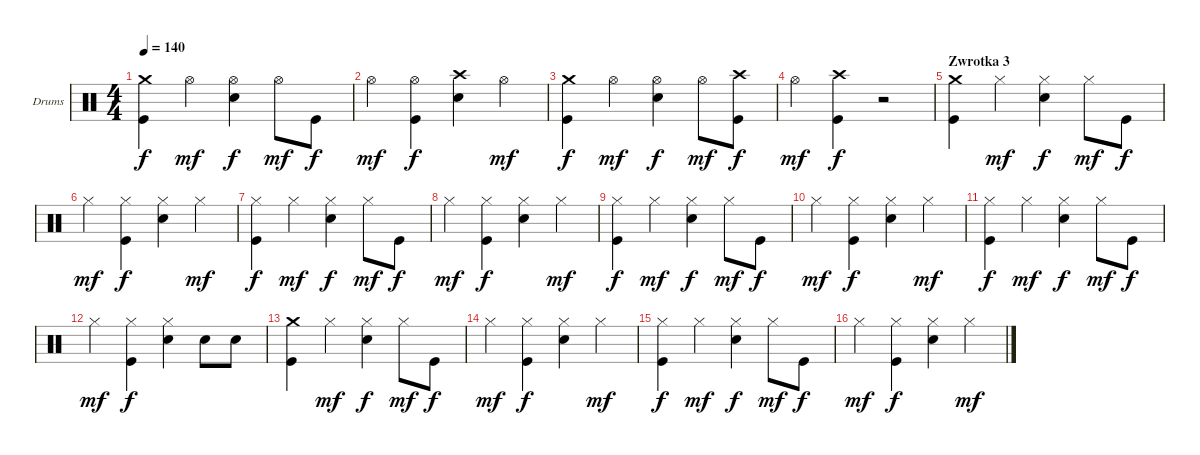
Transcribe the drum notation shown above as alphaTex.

\bracketExtendMode groupsimilarinstruments
\firstSystemTrackNameOrientation horizontal
\otherSystemsTrackNameOrientation horizontal
\track ("Drumkit" "Drums") {instrument percussion}
\staff {score}
\articulation defaults
\ts (4 4)
\tempo 140
\clef neutral
\ks c
("Kick (hit)" "Crash medium (hit)").4{dy f} "Hi-Hat (open)".4{dy mf} ("Snare (hit) 2" "Hi-Hat (open)").4{dy f} "Hi-Hat (open)".8{dy mf} "Kick (hit)".8{dy f} |
"Hi-Hat (open)".4{dy mf} ("Kick (hit)" "Hi-Hat (open)").4{dy f} ("Snare (hit) 2" "Crash high (hit)").4 "Hi-Hat (open)".4{dy mf} |
("Kick (hit)" "Crash medium (hit)").4{dy f} "Hi-Hat (open)".4{dy mf} ("Snare (hit) 2" "Hi-Hat (open)").4{dy f} "Hi-Hat (open)".8{dy mf} ("Kick (hit)" "Crash high (hit)").8{dy f} |
"Hi-Hat (open)".4{dy mf} ("Kick (hit)" "Crash high (hit)").4{dy f} r.2 |
\section ("" "Zwrotka 3")
("Kick (hit)" "Crash medium (hit)").4 "Hi-Hat (closed)".4{dy mf} ("Snare (hit) 2" "Hi-Hat (closed)").4{dy f} "Hi-Hat (closed)".8{dy mf} "Kick (hit)".8{dy f} |
"Hi-Hat (closed)".4{dy mf} ("Kick (hit)" "Hi-Hat (closed)").4{dy f} ("Snare (hit) 2" "Hi-Hat (closed)").4 "Hi-Hat (closed)".4{dy mf} |
("Kick (hit)" "Hi-Hat (closed)").4{dy f} "Hi-Hat (closed)".4{dy mf} ("Snare (hit) 2" "Hi-Hat (closed)").4{dy f} "Hi-Hat (closed)".8{dy mf} "Kick (hit)".8{dy f} |
"Hi-Hat (closed)".4{dy mf} ("Kick (hit)" "Hi-Hat (closed)").4{dy f} ("Snare (hit) 2" "Hi-Hat (closed)").4 "Hi-Hat (closed)".4{dy mf} |
("Kick (hit)" "Hi-Hat (closed)").4{dy f} "Hi-Hat (closed)".4{dy mf} ("Snare (hit) 2" "Hi-Hat (closed)").4{dy f} "Hi-Hat (closed)".8{dy mf} "Kick (hit)".8{dy f} |
"Hi-Hat (closed)".4{dy mf} ("Kick (hit)" "Hi-Hat (closed)").4{dy f} ("Snare (hit) 2" "Hi-Hat (closed)").4 "Hi-Hat (closed)".4{dy mf} |
("Kick (hit)" "Hi-Hat (closed)").4{dy f} "Hi-Hat (closed)".4{dy mf} ("Snare (hit) 2" "Hi-Hat (closed)").4{dy f} "Hi-Hat (closed)".8{dy mf} "Kick (hit)".8{dy f} |
"Hi-Hat (closed)".4{dy mf} ("Kick (hit)" "Hi-Hat (closed)").4{dy f} ("Snare (hit) 2" "Hi-Hat (closed)").4 "Snare (hit) 2".8 "Snare (hit) 2".8 |
("Kick (hit)" "Crash medium (hit)").4 "Hi-Hat (closed)".4{dy mf} ("Snare (hit) 2" "Hi-Hat (closed)").4{dy f} "Hi-Hat (closed)".8{dy mf} "Kick (hit)".8{dy f} |
"Hi-Hat (closed)".4{dy mf} ("Kick (hit)" "Hi-Hat (closed)").4{dy f} ("Snare (hit) 2" "Hi-Hat (closed)").4 "Hi-Hat (closed)".4{dy mf} |
("Kick (hit)" "Hi-Hat (closed)").4{dy f} "Hi-Hat (closed)".4{dy mf} ("Snare (hit) 2" "Hi-Hat (closed)").4{dy f} "Hi-Hat (closed)".8{dy mf} "Kick (hit)".8{dy f} |
"Hi-Hat (closed)".4{dy mf} ("Kick (hit)" "Hi-Hat (closed)").4{dy f} ("Snare (hit) 2" "Hi-Hat (closed)").4 "Hi-Hat (closed)".4{dy mf}
